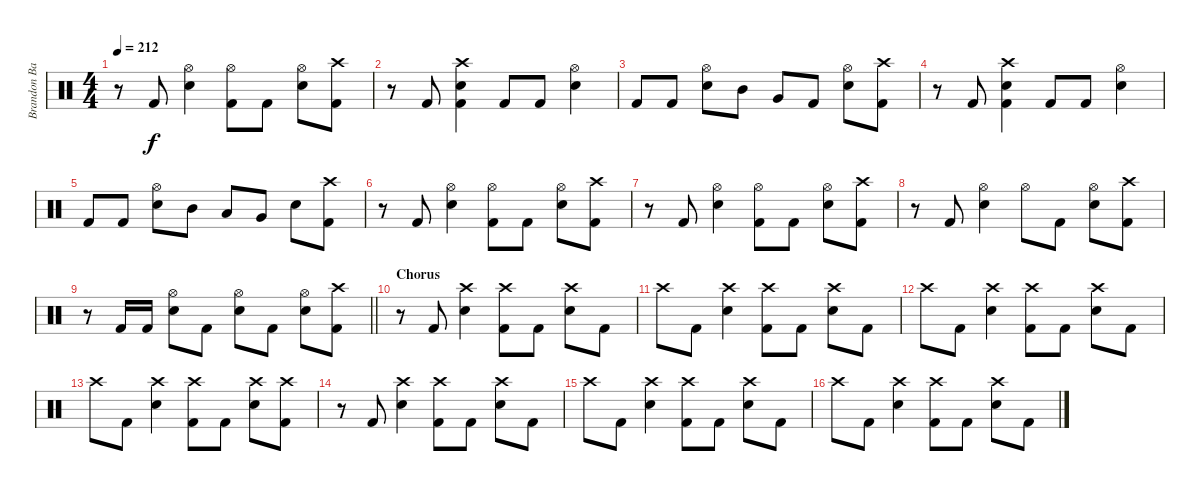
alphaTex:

\track ("Brandon Barnes - Drums" "Brandon Ba") {instrument percussion}
\staff {score}
\articulation defaults
\ts (4 4)
\tempo 212
\clef neutral
\ks c
r.8{dy f} "Kick (hit) 2".8 ("Snare (hit) 2" "Hi-Hat (open)").4 ("Kick (hit) 2" "Hi-Hat (open)").8 "Kick (hit) 2".8 ("Snare (hit) 2" "Hi-Hat (open)").8 ("Kick (hit) 2" "Crash high (hit)").8 |
r.8 "Kick (hit) 2".8 ("Kick (hit) 2" "Snare (hit) 2" "Crash high (hit)").4 "Kick (hit) 2".8 "Kick (hit) 2".8 ("Snare (hit) 2" "Hi-Hat (open)").4 |
"Kick (hit) 2".8 "Kick (hit) 2".8 ("Snare (hit) 2" "Hi-Hat (open)").8 "Mid Tom (hit)".8 "Very Low Tom (hit)".8 "Kick (hit) 2".8 ("Snare (hit) 2" "Hi-Hat (open)").8 ("Kick (hit) 2" "Crash high (hit)").8 |
r.8 "Kick (hit) 2".8 ("Kick (hit) 2" "Snare (hit) 2" "Crash high (hit)").4 "Kick (hit) 2".8 "Kick (hit) 2".8 ("Snare (hit) 2" "Hi-Hat (open)").4 |
"Kick (hit) 2".8 "Kick (hit) 2".8 ("Snare (hit) 2" "Hi-Hat (open)").8 "Mid Tom (hit)".8 "Low Tom (hit)".8 "Very Low Tom (hit)".8 "Snare (hit) 2".8 ("Crash high (hit)" "Kick (hit) 2").8 |
r.8 "Kick (hit) 2".8 ("Snare (hit) 2" "Hi-Hat (open)").4 ("Kick (hit) 2" "Hi-Hat (open)").8 "Kick (hit) 2".8 ("Snare (hit) 2" "Hi-Hat (open)").8 ("Kick (hit) 2" "Crash high (hit)").8 |
r.8 "Kick (hit) 2".8 ("Snare (hit) 2" "Hi-Hat (open)").4 ("Kick (hit) 2" "Hi-Hat (open)").8 "Kick (hit) 2".8 ("Snare (hit) 2" "Hi-Hat (open)").8 ("Kick (hit) 2" "Crash high (hit)").8 |
r.8 "Kick (hit) 2".8 ("Snare (hit) 2" "Hi-Hat (open)").4 "Hi-Hat (open)".8 "Kick (hit) 2".8 ("Snare (hit) 2" "Hi-Hat (open)").8 ("Kick (hit) 2" "Crash high (hit)").8 |
\barLineRight lightlight
r.8 "Kick (hit) 2".16 "Kick (hit) 2".16 ("Snare (hit) 2" "Hi-Hat (open)").8 "Kick (hit) 2".8 ("Snare (hit) 2" "Hi-Hat (open)").8 "Kick (hit) 2".8 ("Snare (hit) 2" "Hi-Hat (open)").8 ("Kick (hit) 2" "Crash high (hit)").8 |
\section ("" "Chorus")
r.8 "Kick (hit) 2".8 ("Snare (hit) 2" "Crash high (hit)").4 ("Kick (hit) 2" "Crash high (hit)").8 "Kick (hit) 2".8 ("Snare (hit) 2" "Crash high (hit)").8 "Kick (hit) 2".8 |
"Crash high (hit)".8 "Kick (hit) 2".8 ("Snare (hit) 2" "Crash high (hit)").4 ("Kick (hit) 2" "Crash high (hit)").8 "Kick (hit) 2".8 ("Snare (hit) 2" "Crash high (hit)").8 "Kick (hit) 2".8 |
"Crash high (hit)".8 "Kick (hit) 2".8 ("Snare (hit) 2" "Crash high (hit)").4 ("Kick (hit) 2" "Crash high (hit)").8 "Kick (hit) 2".8 ("Snare (hit) 2" "Crash high (hit)").8 "Kick (hit) 2".8 |
"Crash high (hit)".8 "Kick (hit) 2".8 ("Snare (hit) 2" "Crash high (hit)").4 ("Kick (hit) 2" "Crash high (hit)").8 "Kick (hit) 2".8 ("Snare (hit) 2" "Crash high (hit)").8 ("Kick (hit) 2" "Crash high (hit)").8 |
r.8 "Kick (hit) 2".8 ("Snare (hit) 2" "Crash high (hit)").4 ("Kick (hit) 2" "Crash high (hit)").8 "Kick (hit) 2".8 ("Snare (hit) 2" "Crash high (hit)").8 "Kick (hit) 2".8 |
"Crash high (hit)".8 "Kick (hit) 2".8 ("Snare (hit) 2" "Crash high (hit)").4 ("Kick (hit) 2" "Crash high (hit)").8 "Kick (hit) 2".8 ("Snare (hit) 2" "Crash high (hit)").8 "Kick (hit) 2".8 |
"Crash high (hit)".8 "Kick (hit) 2".8 ("Snare (hit) 2" "Crash high (hit)").4 ("Kick (hit) 2" "Crash high (hit)").8 "Kick (hit) 2".8 ("Snare (hit) 2" "Crash high (hit)").8 "Kick (hit) 2".8
